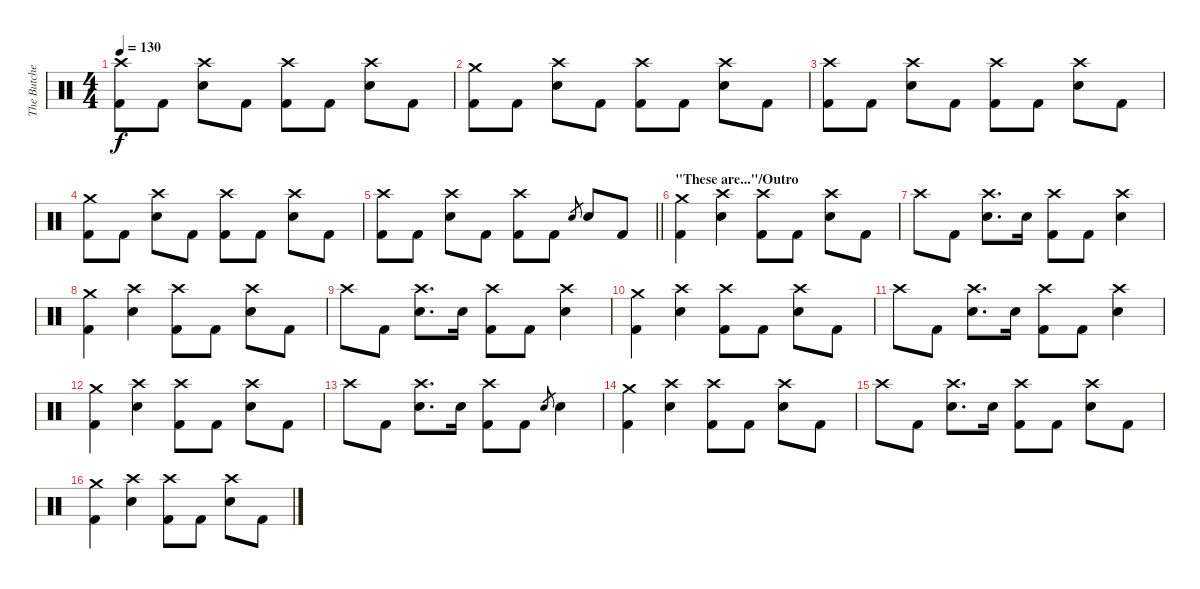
\track ("The Butcher (Drums)" "The Butche") {instrument percussion}
\staff {score}
\articulation defaults
\ts (4 4)
\tempo 130
\clef neutral
\ks c
("Crash high (hit)" "Kick (hit) 2").8{dy f} "Kick (hit) 2".8 ("Crash high (hit)" "Electric Snare (hit)").8 "Kick (hit) 2".8 ("Crash high (hit)" "Kick (hit) 2").8 "Kick (hit) 2".8 ("Crash high (hit)" "Electric Snare (hit)").8 "Kick (hit) 2".8 |
("Crash medium (hit)" "Kick (hit) 2").8 "Kick (hit) 2".8 ("Crash high (hit)" "Electric Snare (hit)").8 "Kick (hit) 2".8 ("Crash high (hit)" "Kick (hit) 2").8 "Kick (hit) 2".8 ("Crash high (hit)" "Electric Snare (hit)").8 "Kick (hit) 2".8 |
("Crash high (hit)" "Kick (hit) 2").8 "Kick (hit) 2".8 ("Crash high (hit)" "Electric Snare (hit)").8 "Kick (hit) 2".8 ("Crash high (hit)" "Kick (hit) 2").8 "Kick (hit) 2".8 ("Crash high (hit)" "Electric Snare (hit)").8 "Kick (hit) 2".8 |
("Crash medium (hit)" "Kick (hit) 2").8 "Kick (hit) 2".8 ("Crash high (hit)" "Electric Snare (hit)").8 "Kick (hit) 2".8 ("Crash high (hit)" "Kick (hit) 2").8 "Kick (hit) 2".8 ("Crash high (hit)" "Electric Snare (hit)").8 "Kick (hit) 2".8 |
\barLineRight lightlight
("Crash high (hit)" "Kick (hit) 2").8 "Kick (hit) 2".8 ("Crash high (hit)" "Electric Snare (hit)").8 "Kick (hit) 2".8 ("Crash high (hit)" "Kick (hit) 2").8 "Kick (hit) 2".8 "Electric Snare (hit)".8{gr} "Electric Snare (hit)".8 "Kick (hit) 2".8 |
\section ("" "\"These are...\"/Outro")
("Crash medium (hit)" "Kick (hit) 2").4 ("Crash high (hit)" "Electric Snare (hit)").4 ("Crash high (hit)" "Kick (hit) 2").8 "Kick (hit) 2".8 ("Crash high (hit)" "Electric Snare (hit)").8 "Kick (hit) 2".8 |
"Crash high (hit)".8 "Kick (hit) 2".8 ("Crash high (hit)" "Electric Snare (hit)").8{d} "Electric Snare (hit)".16 ("Crash high (hit)" "Kick (hit) 2").8 "Kick (hit) 2".8 ("Crash high (hit)" "Electric Snare (hit)").4 |
("Crash medium (hit)" "Kick (hit) 2").4 ("Crash high (hit)" "Electric Snare (hit)").4 ("Crash high (hit)" "Kick (hit) 2").8 "Kick (hit) 2".8 ("Crash high (hit)" "Electric Snare (hit)").8 "Kick (hit) 2".8 |
"Crash high (hit)".8 "Kick (hit) 2".8 ("Crash high (hit)" "Electric Snare (hit)").8{d} "Electric Snare (hit)".16 ("Crash high (hit)" "Kick (hit) 2").8 "Kick (hit) 2".8 ("Crash high (hit)" "Electric Snare (hit)").4 |
("Crash medium (hit)" "Kick (hit) 2").4 ("Crash high (hit)" "Electric Snare (hit)").4 ("Crash high (hit)" "Kick (hit) 2").8 "Kick (hit) 2".8 ("Crash high (hit)" "Electric Snare (hit)").8 "Kick (hit) 2".8 |
"Crash high (hit)".8 "Kick (hit) 2".8 ("Crash high (hit)" "Electric Snare (hit)").8{d} "Electric Snare (hit)".16 ("Crash high (hit)" "Kick (hit) 2").8 "Kick (hit) 2".8 ("Crash high (hit)" "Electric Snare (hit)").4 |
("Crash medium (hit)" "Kick (hit) 2").4 ("Crash high (hit)" "Electric Snare (hit)").4 ("Crash high (hit)" "Kick (hit) 2").8 "Kick (hit) 2".8 ("Crash high (hit)" "Electric Snare (hit)").8 "Kick (hit) 2".8 |
"Crash high (hit)".8 "Kick (hit) 2".8 ("Crash high (hit)" "Electric Snare (hit)").8{d} "Electric Snare (hit)".16 ("Crash high (hit)" "Kick (hit) 2").8 "Kick (hit) 2".8 "Electric Snare (hit)".8{gr} "Electric Snare (hit)".4 |
("Crash medium (hit)" "Kick (hit) 2").4 ("Crash high (hit)" "Electric Snare (hit)").4 ("Crash high (hit)" "Kick (hit) 2").8 "Kick (hit) 2".8 ("Crash high (hit)" "Electric Snare (hit)").8 "Kick (hit) 2".8 |
"Crash high (hit)".8 "Kick (hit) 2".8 ("Crash high (hit)" "Electric Snare (hit)").8{d} "Electric Snare (hit)".16 ("Crash high (hit)" "Kick (hit) 2").8 "Kick (hit) 2".8 ("Crash high (hit)" "Electric Snare (hit)").8 "Kick (hit) 2".8 |
("Crash medium (hit)" "Kick (hit) 2").4 ("Crash high (hit)" "Electric Snare (hit)").4 ("Crash high (hit)" "Kick (hit) 2").8 "Kick (hit) 2".8 ("Crash high (hit)" "Electric Snare (hit)").8 "Kick (hit) 2".8
